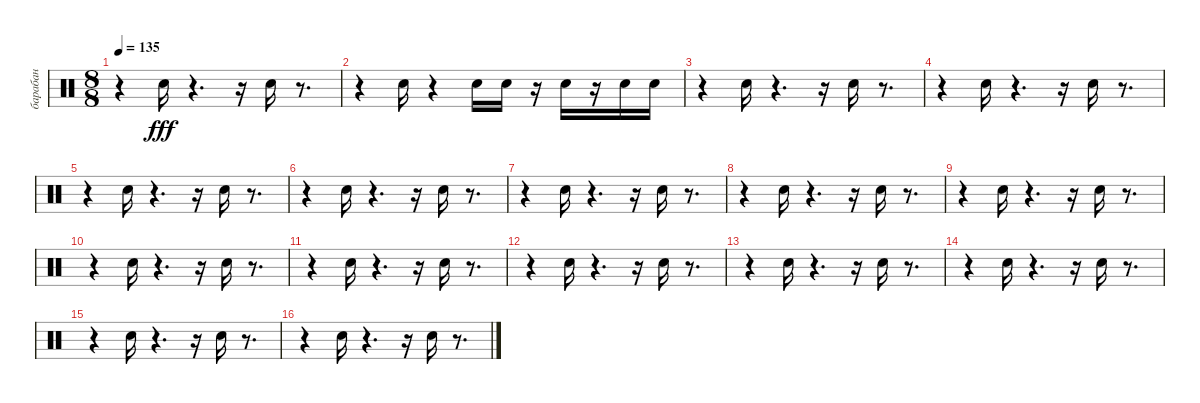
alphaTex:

\track ("барабан" "барабан") {instrument percussion}
\staff {score}
\articulation defaults
\ts (8 8)
\tempo 135
\clef neutral
\ks c
r.4{dy fff} "Snare (hit) 2".16 r.4{d} r.16 "Snare (hit) 2".16 r.8{d} |
r.4 "Snare (hit) 2".16 r.4 "Snare (hit) 2".16 "Snare (hit) 2".16 r.16 "Snare (hit) 2".16 r.16 "Snare (hit) 2".16 "Snare (hit) 2".16 |
r.4 "Snare (hit) 2".16 r.4{d} r.16 "Snare (hit) 2".16 r.8{d} |
r.4 "Snare (hit) 2".16 r.4{d} r.16 "Snare (hit) 2".16 r.8{d} |
r.4 "Snare (hit) 2".16 r.4{d} r.16 "Snare (hit) 2".16 r.8{d} |
r.4 "Snare (hit) 2".16 r.4{d} r.16 "Snare (hit) 2".16 r.8{d} |
r.4 "Snare (hit) 2".16 r.4{d} r.16 "Snare (hit) 2".16 r.8{d} |
r.4 "Snare (hit) 2".16 r.4{d} r.16 "Snare (hit) 2".16 r.8{d} |
r.4 "Snare (hit) 2".16 r.4{d} r.16 "Snare (hit) 2".16 r.8{d} |
r.4 "Snare (hit) 2".16 r.4{d} r.16 "Snare (hit) 2".16 r.8{d} |
r.4 "Snare (hit) 2".16 r.4{d} r.16 "Snare (hit) 2".16 r.8{d} |
r.4 "Snare (hit) 2".16 r.4{d} r.16 "Snare (hit) 2".16 r.8{d} |
r.4 "Snare (hit) 2".16 r.4{d} r.16 "Snare (hit) 2".16 r.8{d} |
r.4 "Snare (hit) 2".16 r.4{d} r.16 "Snare (hit) 2".16 r.8{d} |
r.4 "Snare (hit) 2".16 r.4{d} r.16 "Snare (hit) 2".16 r.8{d} |
r.4 "Snare (hit) 2".16 r.4{d} r.16 "Snare (hit) 2".16 r.8{d}
